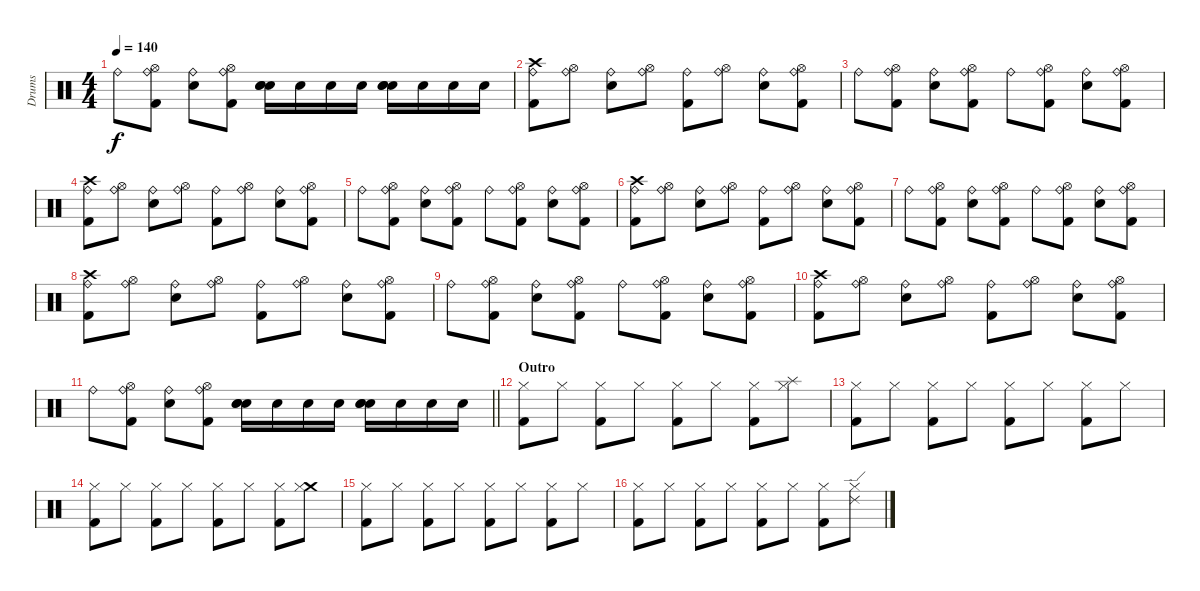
\track ("Drums" "Drums") {instrument percussion}
\staff {score}
\articulation defaults
\ts (4 4)
\tempo 140
\clef neutral
\ks c "Ride (bell)".8{dy f}
("Ride (bell)" "Hi-Hat (open)" "Kick (hit) 2").8 ("Ride (bell)" "Electric Snare (hit)").8 ("Ride (bell)" "Hi-Hat (open)" "Kick (hit) 2").8 ("Snare (hit) 2" "Electric Snare (hit)" "Snare (hit) 2").16 "Electric Snare (hit)".16 "Electric Snare (hit)".16 "Electric Snare (hit)".16 ("Snare (hit) 2" "Snare (hit) 2" "Electric Snare (hit)").16 "Electric Snare (hit)".16 "Electric Snare (hit)".16 "Electric Snare (hit)".16 |
("Crash high (hit)" "Ride (bell)" "Kick (hit) 2").8 ("Ride (bell)" "Hi-Hat (open)").8 ("Ride (bell)" "Electric Snare (hit)").8 ("Ride (bell)" "Hi-Hat (open)").8 ("Ride (bell)" "Kick (hit) 2").8 ("Ride (bell)" "Hi-Hat (open)").8 ("Ride (bell)" "Electric Snare (hit)").8 ("Ride (bell)" "Hi-Hat (open)" "Kick (hit) 2").8 |
"Ride (bell)".8 ("Ride (bell)" "Hi-Hat (open)" "Kick (hit) 2").8 ("Ride (bell)" "Electric Snare (hit)").8 ("Ride (bell)" "Hi-Hat (open)" "Kick (hit) 2").8 "Ride (bell)".8 ("Ride (bell)" "Hi-Hat (open)" "Kick (hit) 2").8 ("Ride (bell)" "Electric Snare (hit)").8 ("Ride (bell)" "Hi-Hat (open)" "Kick (hit) 2").8 |
("Crash high (hit)" "Ride (bell)" "Kick (hit) 2").8 ("Ride (bell)" "Hi-Hat (open)").8 ("Ride (bell)" "Electric Snare (hit)").8 ("Ride (bell)" "Hi-Hat (open)").8 ("Ride (bell)" "Kick (hit) 2").8 ("Ride (bell)" "Hi-Hat (open)").8 ("Ride (bell)" "Electric Snare (hit)").8 ("Ride (bell)" "Hi-Hat (open)" "Kick (hit) 2").8 |
"Ride (bell)".8 ("Ride (bell)" "Hi-Hat (open)" "Kick (hit) 2").8 ("Ride (bell)" "Electric Snare (hit)").8 ("Ride (bell)" "Hi-Hat (open)" "Kick (hit) 2").8 "Ride (bell)".8 ("Ride (bell)" "Hi-Hat (open)" "Kick (hit) 2").8 ("Ride (bell)" "Electric Snare (hit)").8 ("Ride (bell)" "Hi-Hat (open)" "Kick (hit) 2").8 |
("Crash high (hit)" "Ride (bell)" "Kick (hit) 2").8 ("Ride (bell)" "Hi-Hat (open)").8 ("Ride (bell)" "Electric Snare (hit)").8 ("Ride (bell)" "Hi-Hat (open)").8 ("Ride (bell)" "Kick (hit) 2").8 ("Ride (bell)" "Hi-Hat (open)").8 ("Ride (bell)" "Electric Snare (hit)").8 ("Ride (bell)" "Hi-Hat (open)" "Kick (hit) 2").8 |
"Ride (bell)".8 ("Ride (bell)" "Hi-Hat (open)" "Kick (hit) 2").8 ("Ride (bell)" "Electric Snare (hit)").8 ("Ride (bell)" "Hi-Hat (open)" "Kick (hit) 2").8 "Ride (bell)".8 ("Ride (bell)" "Hi-Hat (open)" "Kick (hit) 2").8 ("Ride (bell)" "Electric Snare (hit)").8 ("Ride (bell)" "Hi-Hat (open)" "Kick (hit) 2").8 |
("Crash high (hit)" "Ride (bell)" "Kick (hit) 2").8 ("Ride (bell)" "Hi-Hat (open)").8 ("Ride (bell)" "Electric Snare (hit)").8 ("Ride (bell)" "Hi-Hat (open)").8 ("Ride (bell)" "Kick (hit) 2").8 ("Ride (bell)" "Hi-Hat (open)").8 ("Ride (bell)" "Electric Snare (hit)").8 ("Ride (bell)" "Hi-Hat (open)" "Kick (hit) 2").8 |
"Ride (bell)".8 ("Ride (bell)" "Hi-Hat (open)" "Kick (hit) 2").8 ("Ride (bell)" "Electric Snare (hit)").8 ("Ride (bell)" "Hi-Hat (open)" "Kick (hit) 2").8 "Ride (bell)".8 ("Ride (bell)" "Hi-Hat (open)" "Kick (hit) 2").8 ("Ride (bell)" "Electric Snare (hit)").8 ("Ride (bell)" "Hi-Hat (open)" "Kick (hit) 2").8 |
("Crash high (hit)" "Ride (bell)" "Kick (hit) 2").8 ("Ride (bell)" "Hi-Hat (open)").8 ("Ride (bell)" "Electric Snare (hit)").8 ("Ride (bell)" "Hi-Hat (open)").8 ("Ride (bell)" "Kick (hit) 2").8 ("Ride (bell)" "Hi-Hat (open)").8 ("Ride (bell)" "Electric Snare (hit)").8 ("Ride (bell)" "Hi-Hat (open)" "Kick (hit) 2").8 |
\barLineRight lightlight "Ride (bell)".8
("Ride (bell)" "Hi-Hat (open)" "Kick (hit) 2").8 ("Ride (bell)" "Electric Snare (hit)").8 ("Ride (bell)" "Hi-Hat (open)" "Kick (hit) 2").8 ("Snare (hit) 2" "Electric Snare (hit)" "Snare (hit) 2").16 "Electric Snare (hit)".16 "Electric Snare (hit)".16 "Electric Snare (hit)".16 ("Snare (hit) 2" "Snare (hit) 2" "Electric Snare (hit)").16 "Electric Snare (hit)".16 "Electric Snare (hit)".16 "Electric Snare (hit)".16 |
\section ("" "Outro")
("Hi-Hat (closed)" "Kick (hit) 2").8 "Hi-Hat (closed)".8 ("Hi-Hat (closed)" "Kick (hit) 2").8 "Hi-Hat (closed)".8 ("Hi-Hat (closed)" "Kick (hit) 2").8 "Hi-Hat (closed)".8 ("Hi-Hat (closed)" "Kick (hit) 2").8 ("Splash (hit)" "Hi-Hat (closed)").8 |
("Hi-Hat (closed)" "Kick (hit) 2").8 "Hi-Hat (closed)".8 ("Hi-Hat (closed)" "Kick (hit) 2").8 "Hi-Hat (closed)".8 ("Hi-Hat (closed)" "Kick (hit) 2").8 "Hi-Hat (closed)".8 ("Hi-Hat (closed)" "Kick (hit) 2").8 "Hi-Hat (closed)".8 |
("Hi-Hat (closed)" "Kick (hit) 2").8 "Hi-Hat (closed)".8 ("Hi-Hat (closed)" "Kick (hit) 2").8 "Hi-Hat (closed)".8 ("Hi-Hat (closed)" "Kick (hit) 2").8 "Hi-Hat (closed)".8 ("Hi-Hat (closed)" "Kick (hit) 2").8 ("Crash medium (hit)" "Hi-Hat (closed)").8 |
("Hi-Hat (closed)" "Kick (hit) 2").8 "Hi-Hat (closed)".8 ("Hi-Hat (closed)" "Kick (hit) 2").8 "Hi-Hat (closed)".8 ("Hi-Hat (closed)" "Kick (hit) 2").8 "Hi-Hat (closed)".8 ("Hi-Hat (closed)" "Kick (hit) 2").8 "Hi-Hat (closed)".8 |
("Hi-Hat (closed)" "Kick (hit) 2").8 "Hi-Hat (closed)".8 ("Hi-Hat (closed)" "Kick (hit) 2").8 "Hi-Hat (closed)".8 ("Hi-Hat (closed)" "Kick (hit) 2").8 "Hi-Hat (closed)".8 ("Hi-Hat (closed)" "Kick (hit) 2").8 ("Ride (edge) 2" "Hi-Hat (closed)").8
